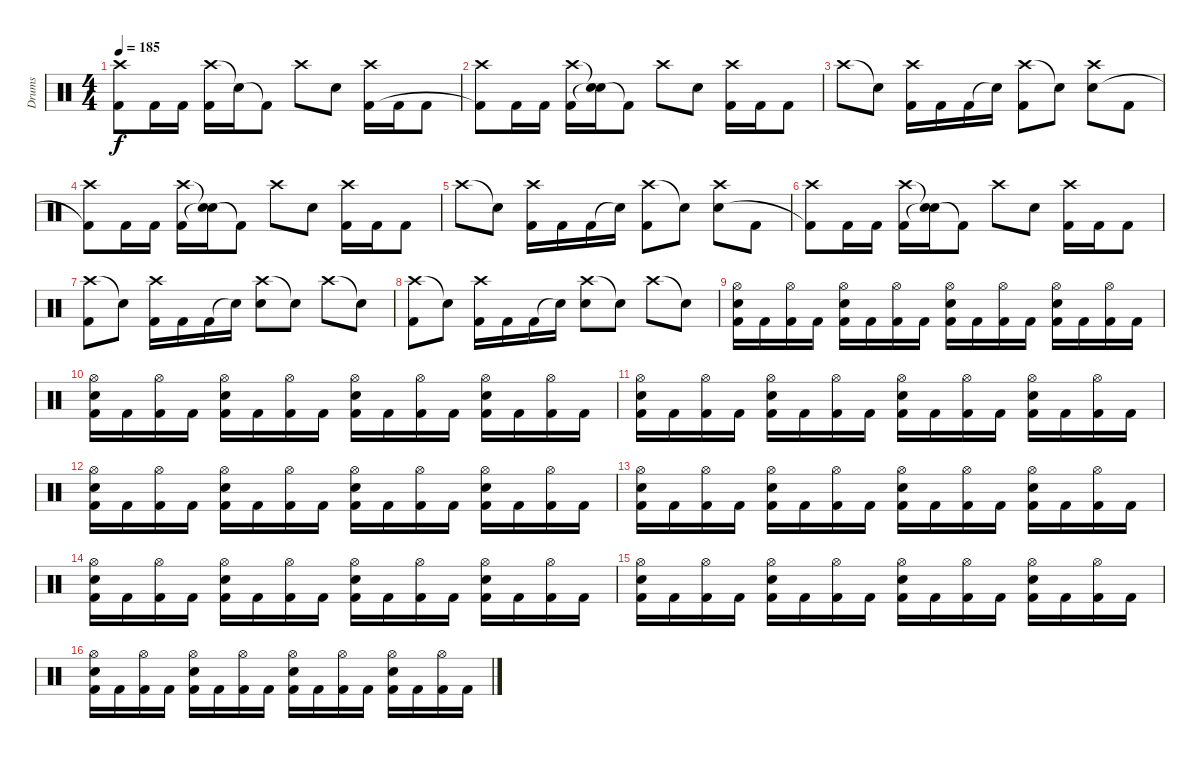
\track ("Drums" "Drums") {instrument percussion}
\staff {score}
\articulation defaults
\ts (4 4)
\tempo 185
\clef neutral
\ks c
("Crash high (hit)" "Kick (hit) 2"{t}).8{dy f} "Kick (hit) 2".16 "Kick (hit) 2".16 ("Crash high (hit)" "Kick (hit) 2").16 "Snare (hit)"{t}.16 "Kick (hit) 2"{t}.8 "Crash high (hit)".8 "Electric Snare (hit)".8 ("Crash high (hit)" "Kick (hit) 2").16 "Kick (hit) 2".16 "Kick (hit) 2".8 |
("Crash high (hit)" "Kick (hit) 2"{t}).8 "Kick (hit) 2".16 "Kick (hit) 2".16 ("Crash high (hit)" "Kick (hit) 2").16 ("Snare (hit)"{t} "Snare (hit)"{t}).16 "Kick (hit) 2"{t}.8 "Crash high (hit)".8 "Electric Snare (hit)".8 ("Crash high (hit)" "Kick (hit) 2").16 "Kick (hit) 2".16 "Kick (hit) 2".8 |
"Crash high (hit)".8 "Snare (hit)"{t}.8 ("Crash high (hit)" "Kick (hit) 2").16 "Kick (hit) 2".16 "Kick (hit) 2".16 "Snare (hit)"{t}.16 ("Crash high (hit)" "Kick (hit) 2").8 "Snare (hit)"{t}.8 ("Crash high (hit)" "Electric Snare (hit)").8 "Kick (hit) 2".8 |
("Crash high (hit)" "Kick (hit) 2"{t}).8 "Kick (hit) 2".16 "Kick (hit) 2".16 ("Crash high (hit)" "Kick (hit) 2").16 ("Snare (hit)"{t} "Snare (hit)"{t}).16 "Kick (hit) 2"{t}.8 "Crash high (hit)".8 "Electric Snare (hit)".8 ("Crash high (hit)" "Kick (hit) 2").16 "Kick (hit) 2".16 "Kick (hit) 2".8 |
"Crash high (hit)".8 "Snare (hit)"{t}.8 ("Crash high (hit)" "Kick (hit) 2").16 "Kick (hit) 2".16 "Kick (hit) 2".16 "Snare (hit)"{t}.16 ("Crash high (hit)" "Kick (hit) 2").8 "Snare (hit)"{t}.8 ("Crash high (hit)" "Electric Snare (hit)").8 "Kick (hit) 2".8 |
("Crash high (hit)" "Kick (hit) 2"{t}).8 "Kick (hit) 2".16 "Kick (hit) 2".16 ("Crash high (hit)" "Kick (hit) 2").16 ("Snare (hit)"{t} "Snare (hit)"{t}).16 "Kick (hit) 2"{t}.8 "Crash high (hit)".8 "Electric Snare (hit)".8 ("Crash high (hit)" "Kick (hit) 2").16 "Kick (hit) 2".16 "Kick (hit) 2".8 |
("Crash high (hit)" "Kick (hit) 2").8 "Snare (hit)"{t}.8 ("Crash high (hit)" "Kick (hit) 2").16 "Kick (hit) 2".16 "Kick (hit) 2".16 "Snare (hit)"{t}.16 ("Crash high (hit)" "Electric Snare (hit)").8 "Snare (hit)"{t}.8 "Crash high (hit)".8 "Snare (hit)"{t}.8 |
("Crash high (hit)" "Kick (hit) 2").8 "Snare (hit)"{t}.8 ("Crash high (hit)" "Kick (hit) 2").16 "Kick (hit) 2".16 "Kick (hit) 2".16 "Snare (hit)"{t}.16 ("Crash high (hit)" "Electric Snare (hit)").8 "Snare (hit)"{t}.8 "Crash high (hit)".8 "Snare (hit)"{t}.8 |
("Hi-Hat (open)" "Electric Snare (hit)" "Kick (hit) 2").16 "Kick (hit) 2".16 ("Hi-Hat (open)" "Kick (hit) 2").16 "Kick (hit) 2".16 ("Hi-Hat (open)" "Electric Snare (hit)" "Kick (hit) 2").16 "Kick (hit) 2".16 ("Hi-Hat (open)" "Kick (hit) 2").16 "Kick (hit) 2".16 ("Hi-Hat (open)" "Electric Snare (hit)" "Kick (hit) 2").16 "Kick (hit) 2".16 ("Hi-Hat (open)" "Kick (hit) 2").16 "Kick (hit) 2".16 ("Hi-Hat (open)" "Electric Snare (hit)" "Kick (hit) 2").16 "Kick (hit) 2".16 ("Hi-Hat (open)" "Kick (hit) 2").16 "Kick (hit) 2".16 |
("Hi-Hat (open)" "Electric Snare (hit)" "Kick (hit) 2").16 "Kick (hit) 2".16 ("Hi-Hat (open)" "Kick (hit) 2").16 "Kick (hit) 2".16 ("Hi-Hat (open)" "Electric Snare (hit)" "Kick (hit) 2").16 "Kick (hit) 2".16 ("Hi-Hat (open)" "Kick (hit) 2").16 "Kick (hit) 2".16 ("Hi-Hat (open)" "Electric Snare (hit)" "Kick (hit) 2").16 "Kick (hit) 2".16 ("Hi-Hat (open)" "Kick (hit) 2").16 "Kick (hit) 2".16 ("Hi-Hat (open)" "Electric Snare (hit)" "Kick (hit) 2").16 "Kick (hit) 2".16 ("Hi-Hat (open)" "Kick (hit) 2").16 "Kick (hit) 2".16 |
("Hi-Hat (open)" "Electric Snare (hit)" "Kick (hit) 2").16 "Kick (hit) 2".16 ("Hi-Hat (open)" "Kick (hit) 2").16 "Kick (hit) 2".16 ("Hi-Hat (open)" "Electric Snare (hit)" "Kick (hit) 2").16 "Kick (hit) 2".16 ("Hi-Hat (open)" "Kick (hit) 2").16 "Kick (hit) 2".16 ("Hi-Hat (open)" "Electric Snare (hit)" "Kick (hit) 2").16 "Kick (hit) 2".16 ("Hi-Hat (open)" "Kick (hit) 2").16 "Kick (hit) 2".16 ("Hi-Hat (open)" "Electric Snare (hit)" "Kick (hit) 2").16 "Kick (hit) 2".16 ("Hi-Hat (open)" "Kick (hit) 2").16 "Kick (hit) 2".16 |
("Hi-Hat (open)" "Electric Snare (hit)" "Kick (hit) 2").16 "Kick (hit) 2".16 ("Hi-Hat (open)" "Kick (hit) 2").16 "Kick (hit) 2".16 ("Hi-Hat (open)" "Electric Snare (hit)" "Kick (hit) 2").16 "Kick (hit) 2".16 ("Hi-Hat (open)" "Kick (hit) 2").16 "Kick (hit) 2".16 ("Hi-Hat (open)" "Electric Snare (hit)" "Kick (hit) 2").16 "Kick (hit) 2".16 ("Hi-Hat (open)" "Kick (hit) 2").16 "Kick (hit) 2".16 ("Hi-Hat (open)" "Electric Snare (hit)" "Kick (hit) 2").16 "Kick (hit) 2".16 ("Hi-Hat (open)" "Kick (hit) 2").16 "Kick (hit) 2".16 |
("Hi-Hat (open)" "Electric Snare (hit)" "Kick (hit) 2").16 "Kick (hit) 2".16 ("Hi-Hat (open)" "Kick (hit) 2").16 "Kick (hit) 2".16 ("Hi-Hat (open)" "Electric Snare (hit)" "Kick (hit) 2").16 "Kick (hit) 2".16 ("Hi-Hat (open)" "Kick (hit) 2").16 "Kick (hit) 2".16 ("Hi-Hat (open)" "Electric Snare (hit)" "Kick (hit) 2").16 "Kick (hit) 2".16 ("Hi-Hat (open)" "Kick (hit) 2").16 "Kick (hit) 2".16 ("Hi-Hat (open)" "Electric Snare (hit)" "Kick (hit) 2").16 "Kick (hit) 2".16 ("Hi-Hat (open)" "Kick (hit) 2").16 "Kick (hit) 2".16 |
("Hi-Hat (open)" "Electric Snare (hit)" "Kick (hit) 2").16 "Kick (hit) 2".16 ("Hi-Hat (open)" "Kick (hit) 2").16 "Kick (hit) 2".16 ("Hi-Hat (open)" "Electric Snare (hit)" "Kick (hit) 2").16 "Kick (hit) 2".16 ("Hi-Hat (open)" "Kick (hit) 2").16 "Kick (hit) 2".16 ("Hi-Hat (open)" "Electric Snare (hit)" "Kick (hit) 2").16 "Kick (hit) 2".16 ("Hi-Hat (open)" "Kick (hit) 2").16 "Kick (hit) 2".16 ("Hi-Hat (open)" "Electric Snare (hit)" "Kick (hit) 2").16 "Kick (hit) 2".16 ("Hi-Hat (open)" "Kick (hit) 2").16 "Kick (hit) 2".16 |
("Hi-Hat (open)" "Electric Snare (hit)" "Kick (hit) 2").16 "Kick (hit) 2".16 ("Hi-Hat (open)" "Kick (hit) 2").16 "Kick (hit) 2".16 ("Hi-Hat (open)" "Electric Snare (hit)" "Kick (hit) 2").16 "Kick (hit) 2".16 ("Hi-Hat (open)" "Kick (hit) 2").16 "Kick (hit) 2".16 ("Hi-Hat (open)" "Electric Snare (hit)" "Kick (hit) 2").16 "Kick (hit) 2".16 ("Hi-Hat (open)" "Kick (hit) 2").16 "Kick (hit) 2".16 ("Hi-Hat (open)" "Electric Snare (hit)" "Kick (hit) 2").16 "Kick (hit) 2".16 ("Hi-Hat (open)" "Kick (hit) 2").16 "Kick (hit) 2".16 |
("Hi-Hat (open)" "Electric Snare (hit)" "Kick (hit) 2").16 "Kick (hit) 2".16 ("Hi-Hat (open)" "Kick (hit) 2").16 "Kick (hit) 2".16 ("Hi-Hat (open)" "Electric Snare (hit)" "Kick (hit) 2").16 "Kick (hit) 2".16 ("Hi-Hat (open)" "Kick (hit) 2").16 "Kick (hit) 2".16 ("Hi-Hat (open)" "Electric Snare (hit)" "Kick (hit) 2").16 "Kick (hit) 2".16 ("Hi-Hat (open)" "Kick (hit) 2").16 "Kick (hit) 2".16 ("Hi-Hat (open)" "Electric Snare (hit)" "Kick (hit) 2").16 "Kick (hit) 2".16 ("Hi-Hat (open)" "Kick (hit) 2").16 "Kick (hit) 2".16
